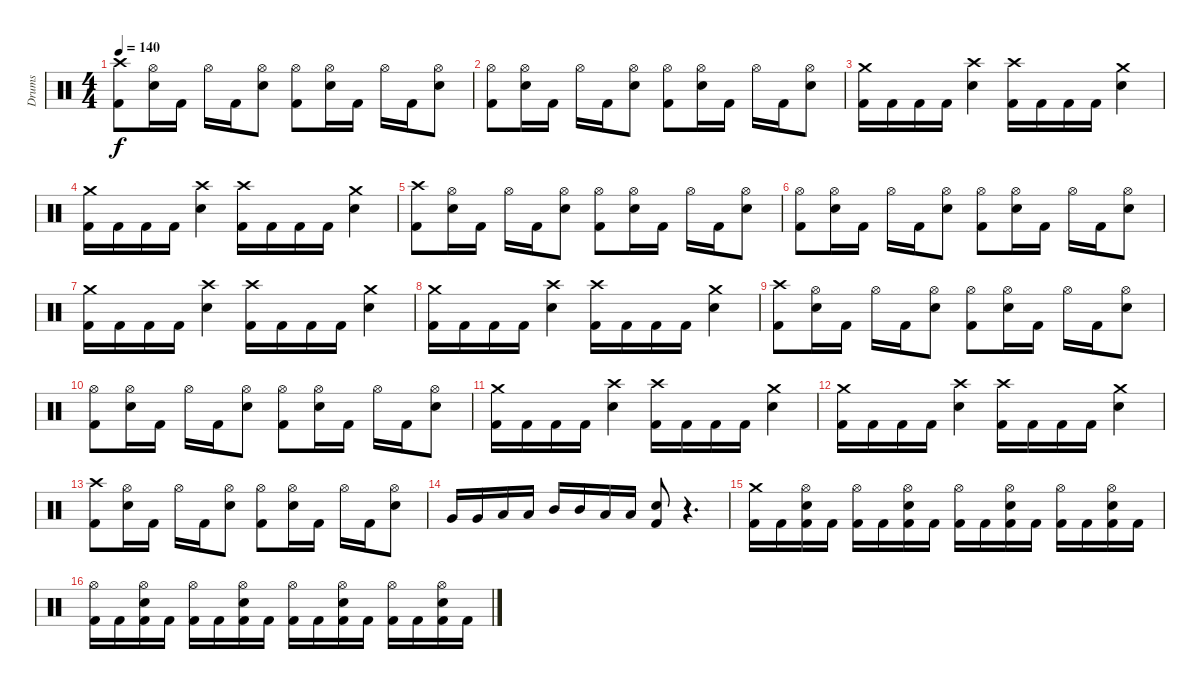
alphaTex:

\track ("Drums" "Drums") {instrument percussion}
\staff {score}
\articulation defaults
\ts (4 4)
\tempo 140
\clef neutral
\ks c
("Kick (hit) 2" "Crash high (hit)").8{dy f} ("Snare (hit) 2" "Hi-Hat (open)").16 "Kick (hit) 2".16 "Hi-Hat (open)".16 "Kick (hit) 2".16 ("Hi-Hat (open)" "Snare (hit) 2").8 ("Hi-Hat (open)" "Kick (hit) 2").8 ("Snare (hit) 2" "Hi-Hat (open)").16 "Kick (hit) 2".16 "Hi-Hat (open)".16 "Kick (hit) 2".16 ("Hi-Hat (open)" "Snare (hit) 2").8 |
("Kick (hit) 2" "Hi-Hat (open)").8 ("Snare (hit) 2" "Hi-Hat (open)").16 "Kick (hit) 2".16 "Hi-Hat (open)".16 "Kick (hit) 2".16 ("Snare (hit) 2" "Hi-Hat (open)").8 ("Hi-Hat (open)" "Kick (hit) 2").8 ("Hi-Hat (open)" "Snare (hit) 2").16 "Kick (hit) 2".16 "Hi-Hat (open)".16 "Kick (hit) 2".16 ("Snare (hit) 2" "Hi-Hat (open)").8 |
("Kick (hit) 2" "Crash medium (hit)").16 "Kick (hit) 2".16 "Kick (hit) 2".16 "Kick (hit) 2".16 ("Crash high (hit)" "Snare (hit) 2").4 ("Kick (hit) 2" "Crash high (hit)").16 "Kick (hit) 2".16 "Kick (hit) 2".16 "Kick (hit) 2".16 ("Crash medium (hit)" "Snare (hit) 2").4 |
("Kick (hit) 2" "Crash medium (hit)").16 "Kick (hit) 2".16 "Kick (hit) 2".16 "Kick (hit) 2".16 ("Crash high (hit)" "Snare (hit) 2").4 ("Kick (hit) 2" "Crash high (hit)").16 "Kick (hit) 2".16 "Kick (hit) 2".16 "Kick (hit) 2".16 ("Crash medium (hit)" "Snare (hit) 2").4 |
("Kick (hit) 2" "Crash high (hit)").8 ("Snare (hit) 2" "Hi-Hat (open)").16 "Kick (hit) 2".16 "Hi-Hat (open)".16 "Kick (hit) 2".16 ("Hi-Hat (open)" "Snare (hit) 2").8 ("Hi-Hat (open)" "Kick (hit) 2").8 ("Snare (hit) 2" "Hi-Hat (open)").16 "Kick (hit) 2".16 "Hi-Hat (open)".16 "Kick (hit) 2".16 ("Hi-Hat (open)" "Snare (hit) 2").8 |
("Kick (hit) 2" "Hi-Hat (open)").8 ("Snare (hit) 2" "Hi-Hat (open)").16 "Kick (hit) 2".16 "Hi-Hat (open)".16 "Kick (hit) 2".16 ("Snare (hit) 2" "Hi-Hat (open)").8 ("Hi-Hat (open)" "Kick (hit) 2").8 ("Hi-Hat (open)" "Snare (hit) 2").16 "Kick (hit) 2".16 "Hi-Hat (open)".16 "Kick (hit) 2".16 ("Snare (hit) 2" "Hi-Hat (open)").8 |
("Kick (hit) 2" "Crash medium (hit)").16 "Kick (hit) 2".16 "Kick (hit) 2".16 "Kick (hit) 2".16 ("Crash high (hit)" "Snare (hit) 2").4 ("Kick (hit) 2" "Crash high (hit)").16 "Kick (hit) 2".16 "Kick (hit) 2".16 "Kick (hit) 2".16 ("Crash medium (hit)" "Snare (hit) 2").4 |
("Kick (hit) 2" "Crash medium (hit)").16 "Kick (hit) 2".16 "Kick (hit) 2".16 "Kick (hit) 2".16 ("Crash high (hit)" "Snare (hit) 2").4 ("Kick (hit) 2" "Crash high (hit)").16 "Kick (hit) 2".16 "Kick (hit) 2".16 "Kick (hit) 2".16 ("Crash medium (hit)" "Snare (hit) 2").4 |
("Kick (hit) 2" "Crash high (hit)").8 ("Snare (hit) 2" "Hi-Hat (open)").16 "Kick (hit) 2".16 "Hi-Hat (open)".16 "Kick (hit) 2".16 ("Hi-Hat (open)" "Snare (hit) 2").8 ("Hi-Hat (open)" "Kick (hit) 2").8 ("Snare (hit) 2" "Hi-Hat (open)").16 "Kick (hit) 2".16 "Hi-Hat (open)".16 "Kick (hit) 2".16 ("Hi-Hat (open)" "Snare (hit) 2").8 |
("Kick (hit) 2" "Hi-Hat (open)").8 ("Snare (hit) 2" "Hi-Hat (open)").16 "Kick (hit) 2".16 "Hi-Hat (open)".16 "Kick (hit) 2".16 ("Snare (hit) 2" "Hi-Hat (open)").8 ("Hi-Hat (open)" "Kick (hit) 2").8 ("Hi-Hat (open)" "Snare (hit) 2").16 "Kick (hit) 2".16 "Hi-Hat (open)".16 "Kick (hit) 2".16 ("Snare (hit) 2" "Hi-Hat (open)").8 |
("Kick (hit) 2" "Crash medium (hit)").16 "Kick (hit) 2".16 "Kick (hit) 2".16 "Kick (hit) 2".16 ("Crash high (hit)" "Snare (hit) 2").4 ("Kick (hit) 2" "Crash high (hit)").16 "Kick (hit) 2".16 "Kick (hit) 2".16 "Kick (hit) 2".16 ("Crash medium (hit)" "Snare (hit) 2").4 |
("Kick (hit) 2" "Crash medium (hit)").16 "Kick (hit) 2".16 "Kick (hit) 2".16 "Kick (hit) 2".16 ("Crash high (hit)" "Snare (hit) 2").4 ("Kick (hit) 2" "Crash high (hit)").16 "Kick (hit) 2".16 "Kick (hit) 2".16 "Kick (hit) 2".16 ("Crash medium (hit)" "Snare (hit) 2").4 |
("Kick (hit) 2" "Crash high (hit)").8 ("Hi-Hat (open)" "Snare (hit) 2").16 "Kick (hit) 2".16 "Hi-Hat (open)".16 "Kick (hit) 2".16 ("Snare (hit) 2" "Hi-Hat (open)").8 ("Kick (hit) 2" "Hi-Hat (open)").8 ("Snare (hit) 2" "Hi-Hat (open)").16 "Kick (hit) 2".16 "Hi-Hat (open)".16 "Kick (hit) 2".16 ("Snare (hit) 2" "Hi-Hat (open)").8 |
"Very Low Tom (hit)".16 "Very Low Tom (hit)".16 "Low Tom (hit)".16 "Low Tom (hit)".16 "Mid Tom (hit)".16 "Mid Tom (hit)".16 "Low Tom (hit)".16 "Low Tom (hit)".16 ("Kick (hit) 2" "Snare (hit) 2").8 r.4{d} |
("Kick (hit) 2" "Crash medium (hit)").16 "Kick (hit) 2".16 ("Snare (hit) 2" "Hi-Hat (open)" "Kick (hit) 2").16 "Kick (hit) 2".16 ("Kick (hit) 2" "Hi-Hat (open)").16 "Kick (hit) 2".16 ("Snare (hit) 2" "Hi-Hat (open)" "Kick (hit) 2").16 "Kick (hit) 2".16 ("Kick (hit) 2" "Hi-Hat (open)").16 "Kick (hit) 2".16 ("Snare (hit) 2" "Kick (hit) 2" "Hi-Hat (open)").16 "Kick (hit) 2".16 ("Hi-Hat (open)" "Kick (hit) 2").16 "Kick (hit) 2".16 ("Snare (hit) 2" "Kick (hit) 2" "Hi-Hat (open)").16 "Kick (hit) 2".16 |
("Hi-Hat (open)" "Kick (hit) 2").16 "Kick (hit) 2".16 ("Hi-Hat (open)" "Kick (hit) 2" "Snare (hit) 2").16 "Kick (hit) 2".16 ("Hi-Hat (open)" "Kick (hit) 2").16 "Kick (hit) 2".16 ("Hi-Hat (open)" "Kick (hit) 2" "Snare (hit) 2").16 "Kick (hit) 2".16 ("Hi-Hat (open)" "Kick (hit) 2").16 "Kick (hit) 2".16 ("Snare (hit) 2" "Kick (hit) 2" "Hi-Hat (open)").16 "Kick (hit) 2".16 ("Hi-Hat (open)" "Kick (hit) 2").16 "Kick (hit) 2".16 ("Hi-Hat (open)" "Kick (hit) 2" "Snare (hit) 2").16 "Kick (hit) 2".16
